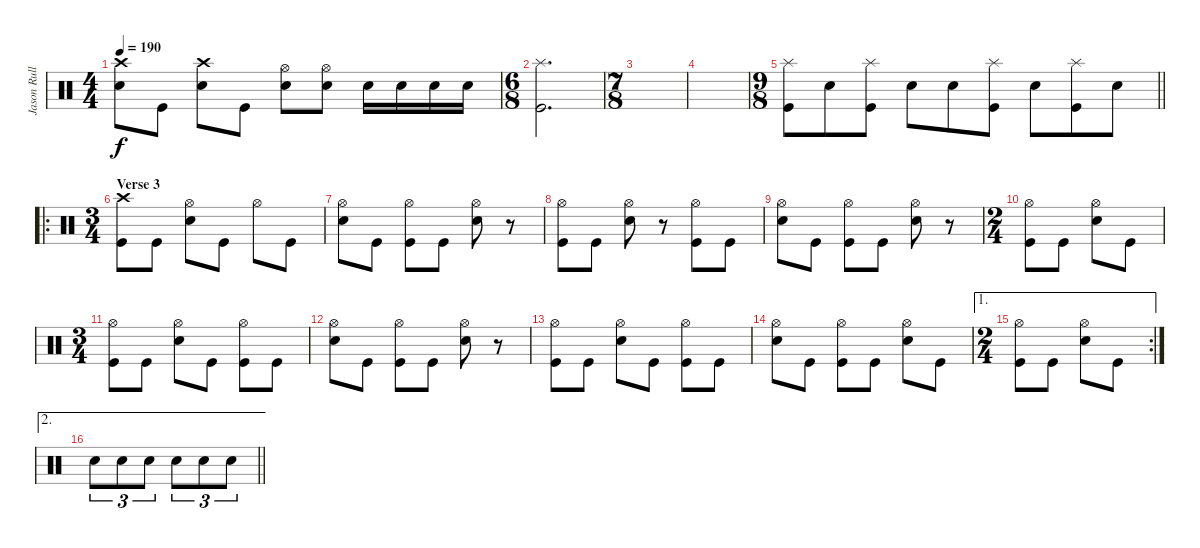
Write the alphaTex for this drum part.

\track ("Jason Rullo - Drums and Percussion" "Jason Rull") {instrument percussion}
\staff {score}
\articulation defaults
\ts (4 4)
\tempo 190
\clef neutral
\ks c
("Snare (hit) 2" "Crash high (hit)").8{dy f} "Kick (hit)".8 ("Snare (hit) 2" "Crash high (hit)").8 "Kick (hit)".8 ("Snare (hit) 2" "Hi-Hat (open)").8 ("Snare (hit) 2" "Hi-Hat (open)").8 "Snare (hit) 2".16 "Snare (hit) 2".16 "Snare (hit) 2".16 "Snare (hit) 2".16 |
\ts (6 8)
("Kick (hit)" "Splash (hit)").2{d} |
\ts (7 8)
|
|
\ts (9 8)
\barLineRight lightlight
("Kick (hit)" "Splash (hit)").8 "Snare (hit) 2".8 ("Kick (hit)" "Splash (hit)").8 "Snare (hit) 2".8 "Snare (hit) 2".8 ("Kick (hit)" "Splash (hit)").8 "Snare (hit) 2".8 ("Kick (hit)" "Splash (hit)").8 "Snare (hit) 2".8 |
\ro
\ts (3 4)
\section ("" "Verse 3")
("Kick (hit)" "Crash high (hit)").8 "Kick (hit)".8 ("Snare (hit) 2" "Hi-Hat (open)").8 "Kick (hit)".8 "Hi-Hat (open)".8 "Kick (hit)".8 |
("Snare (hit) 2" "Hi-Hat (open)").8 "Kick (hit)".8 ("Kick (hit)" "Hi-Hat (open)").8 "Kick (hit)".8 ("Snare (hit) 2" "Hi-Hat (open)").8 r.8 |
("Kick (hit)" "Hi-Hat (open)").8 "Kick (hit)".8 ("Snare (hit) 2" "Hi-Hat (open)").8 r.8 ("Kick (hit)" "Hi-Hat (open)").8 "Kick (hit)".8 |
("Snare (hit) 2" "Hi-Hat (open)").8 "Kick (hit)".8 ("Kick (hit)" "Hi-Hat (open)").8 "Kick (hit)".8 ("Snare (hit) 2" "Hi-Hat (open)").8 r.8 |
\ts (2 4)
("Kick (hit)" "Hi-Hat (open)").8 "Kick (hit)".8 ("Snare (hit) 2" "Hi-Hat (open)").8 "Kick (hit)".8 |
\ts (3 4)
("Kick (hit)" "Hi-Hat (open)").8 "Kick (hit)".8 ("Snare (hit) 2" "Hi-Hat (open)").8 "Kick (hit)".8 ("Kick (hit)" "Hi-Hat (open)").8 "Kick (hit)".8 |
("Snare (hit) 2" "Hi-Hat (open)").8 "Kick (hit)".8 ("Kick (hit)" "Hi-Hat (open)").8 "Kick (hit)".8 ("Snare (hit) 2" "Hi-Hat (open)").8 r.8 |
("Kick (hit)" "Hi-Hat (open)").8 "Kick (hit)".8 ("Hi-Hat (open)" "Snare (hit) 2").8 "Kick (hit)".8 ("Kick (hit)" "Hi-Hat (open)").8 "Kick (hit)".8 |
("Snare (hit) 2" "Hi-Hat (open)").8 "Kick (hit)".8 ("Kick (hit)" "Hi-Hat (open)").8 "Kick (hit)".8 ("Snare (hit) 2" "Hi-Hat (open)").8 "Kick (hit)".8 |
\ae 1
\rc 2
\ts (2 4)
("Hi-Hat (open)" "Kick (hit)").8 "Kick (hit)".8 ("Hi-Hat (open)" "Snare (hit) 2").8 "Kick (hit)".8 |
\ae 2
\barLineRight lightlight "Snare (hit) 2".8{tu (3 2)} "Snare (hit) 2".8{tu (3 2)} "Snare (hit) 2".8{tu (3 2)} "Snare (hit) 2".8{tu (3 2)} "Snare (hit) 2".8{tu (3 2)} "Snare (hit) 2".8{tu (3 2)}
